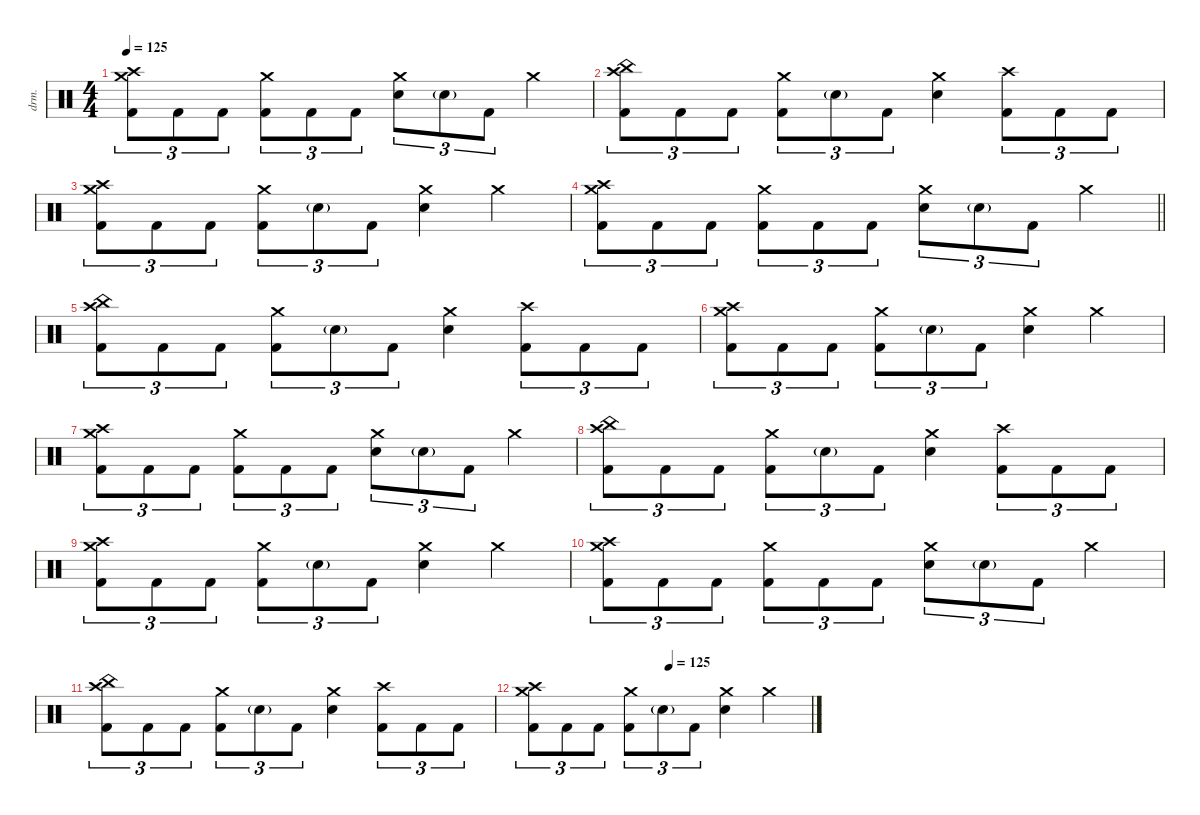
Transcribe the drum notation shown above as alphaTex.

\defaultSystemsLayout 4
\hideDynamics
\bracketExtendMode nobrackets
\track ("DRUMS (Thomas Haake)" "drm.") {instrument percussion}
\staff {score}
\articulation defaults
\ts (4 4)
\tempo 125
\clef neutral
\ks c
("Crash medium (hit)" "Crash high (hit)" "Kick (hit) 2").8{tu (3 2) dy mf} "Kick (hit) 2".8{tu (3 2) dy f} "Kick (hit) 2".8{tu (3 2)} ("Crash medium (hit)" "Kick (hit) 2").8{tu (3 2) dy mf} "Kick (hit) 2".8{tu (3 2) dy f} "Kick (hit) 2".8{tu (3 2)} ("Crash medium (hit)" "Snare (hit) 2").8{tu (3 2) dy mf} "Snare (hit) 2"{g}.8{tu (3 2) dy mp} "Kick (hit) 2".8{tu (3 2) dy f} "Crash medium (hit)".4{dy mf} |
("China (hit)" "Crash high (hit)" "Kick (hit) 2").8{tu (3 2)} "Kick (hit) 2".8{tu (3 2) dy f} "Kick (hit) 2".8{tu (3 2)} ("Crash medium (hit)" "Kick (hit) 2").8{tu (3 2) dy mf} "Snare (hit) 2"{g}.8{tu (3 2) dy p} "Kick (hit) 2".8{tu (3 2) dy f} ("Crash medium (hit)" "Snare (hit) 2").4{dy mf} ("Crash high (hit)" "Kick (hit) 2").8{tu (3 2) dy f} "Kick (hit) 2".8{tu (3 2)} "Kick (hit) 2".8{tu (3 2)} |
("Crash medium (hit)" "Crash high (hit)" "Kick (hit) 2").8{tu (3 2) dy mf} "Kick (hit) 2".8{tu (3 2) dy f} "Kick (hit) 2".8{tu (3 2)} ("Crash medium (hit)" "Kick (hit) 2").8{tu (3 2) dy mf} "Snare (hit) 2"{g}.8{tu (3 2) dy p} "Kick (hit) 2".8{tu (3 2) dy f} ("Crash medium (hit)" "Snare (hit) 2").4{dy mf} "Crash medium (hit)".4 |
\barLineRight lightlight
("Crash medium (hit)" "Crash high (hit)" "Kick (hit) 2").8{tu (3 2)} "Kick (hit) 2".8{tu (3 2) dy f} "Kick (hit) 2".8{tu (3 2)} ("Crash medium (hit)" "Kick (hit) 2").8{tu (3 2) dy mf} "Kick (hit) 2".8{tu (3 2) dy f} "Kick (hit) 2".8{tu (3 2)} ("Crash medium (hit)" "Snare (hit) 2").8{tu (3 2) dy mf} "Snare (hit) 2"{g}.8{tu (3 2) dy mp} "Kick (hit) 2".8{tu (3 2) dy f} "Crash medium (hit)".4{dy mf} |
("China (hit)" "Crash high (hit)" "Kick (hit) 2").8{tu (3 2)} "Kick (hit) 2".8{tu (3 2) dy f} "Kick (hit) 2".8{tu (3 2)} ("Crash medium (hit)" "Kick (hit) 2").8{tu (3 2) dy mf} "Snare (hit) 2"{g}.8{tu (3 2) dy p} "Kick (hit) 2".8{tu (3 2) dy f} ("Crash medium (hit)" "Snare (hit) 2").4{dy mf} ("Crash high (hit)" "Kick (hit) 2").8{tu (3 2) dy f} "Kick (hit) 2".8{tu (3 2)} "Kick (hit) 2".8{tu (3 2)} |
("Crash medium (hit)" "Crash high (hit)" "Kick (hit) 2").8{tu (3 2) dy mf} "Kick (hit) 2".8{tu (3 2) dy f} "Kick (hit) 2".8{tu (3 2)} ("Crash medium (hit)" "Kick (hit) 2").8{tu (3 2) dy mf} "Snare (hit) 2"{g}.8{tu (3 2) dy p} "Kick (hit) 2".8{tu (3 2) dy f} ("Crash medium (hit)" "Snare (hit) 2").4{dy mf} "Crash medium (hit)".4 |
("Crash medium (hit)" "Crash high (hit)" "Kick (hit) 2").8{tu (3 2)} "Kick (hit) 2".8{tu (3 2) dy f} "Kick (hit) 2".8{tu (3 2)} ("Crash medium (hit)" "Kick (hit) 2").8{tu (3 2) dy mf} "Kick (hit) 2".8{tu (3 2) dy f} "Kick (hit) 2".8{tu (3 2)} ("Crash medium (hit)" "Snare (hit) 2").8{tu (3 2) dy mf} "Snare (hit) 2"{g}.8{tu (3 2) dy mp} "Kick (hit) 2".8{tu (3 2) dy f} "Crash medium (hit)".4{dy mf} |
("China (hit)" "Crash high (hit)" "Kick (hit) 2").8{tu (3 2)} "Kick (hit) 2".8{tu (3 2) dy f} "Kick (hit) 2".8{tu (3 2)} ("Crash medium (hit)" "Kick (hit) 2").8{tu (3 2) dy mf} "Snare (hit) 2"{g}.8{tu (3 2) dy p} "Kick (hit) 2".8{tu (3 2) dy f} ("Crash medium (hit)" "Snare (hit) 2").4{dy mf} ("Crash high (hit)" "Kick (hit) 2").8{tu (3 2) dy f} "Kick (hit) 2".8{tu (3 2)} "Kick (hit) 2".8{tu (3 2)} |
("Crash medium (hit)" "Crash high (hit)" "Kick (hit) 2").8{tu (3 2) dy mf} "Kick (hit) 2".8{tu (3 2) dy f} "Kick (hit) 2".8{tu (3 2)} ("Crash medium (hit)" "Kick (hit) 2").8{tu (3 2) dy mf} "Snare (hit) 2"{g}.8{tu (3 2) dy p} "Kick (hit) 2".8{tu (3 2) dy f} ("Crash medium (hit)" "Snare (hit) 2").4{dy mf} "Crash medium (hit)".4 |
("Crash medium (hit)" "Crash high (hit)" "Kick (hit) 2").8{tu (3 2)} "Kick (hit) 2".8{tu (3 2) dy f} "Kick (hit) 2".8{tu (3 2)} ("Crash medium (hit)" "Kick (hit) 2").8{tu (3 2) dy mf} "Kick (hit) 2".8{tu (3 2) dy f} "Kick (hit) 2".8{tu (3 2)} ("Crash medium (hit)" "Snare (hit) 2").8{tu (3 2) dy mf} "Snare (hit) 2"{g}.8{tu (3 2) dy mp} "Kick (hit) 2".8{tu (3 2) dy f} "Crash medium (hit)".4{dy mf} |
("China (hit)" "Crash high (hit)" "Kick (hit) 2").8{tu (3 2)} "Kick (hit) 2".8{tu (3 2) dy f} "Kick (hit) 2".8{tu (3 2)} ("Crash medium (hit)" "Kick (hit) 2").8{tu (3 2) dy mf} "Snare (hit) 2"{g}.8{tu (3 2) dy p} "Kick (hit) 2".8{tu (3 2) dy f} ("Crash medium (hit)" "Snare (hit) 2").4{dy mf} ("Crash high (hit)" "Kick (hit) 2").8{tu (3 2) dy f} "Kick (hit) 2".8{tu (3 2)} "Kick (hit) 2".8{tu (3 2)} |
\tempo (125 0.5)
("Crash medium (hit)" "Crash high (hit)" "Kick (hit) 2").8{tu (3 2) dy mf} "Kick (hit) 2".8{tu (3 2) dy f} "Kick (hit) 2".8{tu (3 2)} ("Crash medium (hit)" "Kick (hit) 2").8{tu (3 2) dy mf} "Snare (hit) 2"{g}.8{tu (3 2) dy p} "Kick (hit) 2".8{tu (3 2) dy f} ("Crash medium (hit)" "Snare (hit) 2").4{dy mf} "Crash medium (hit)".4
